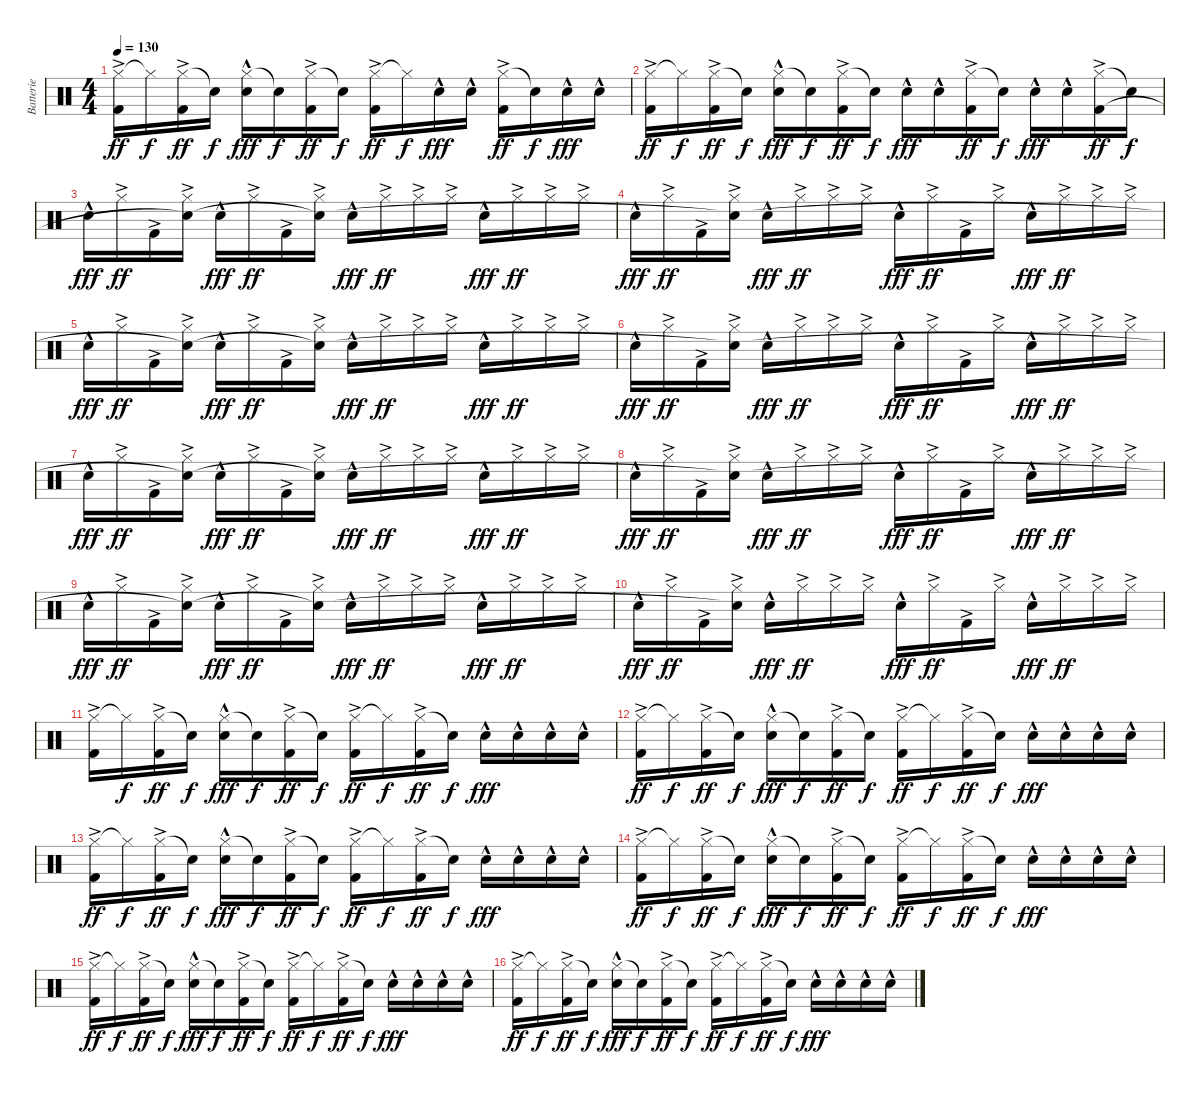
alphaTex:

\track ("Batterie" "Batterie") {instrument percussion}
\staff {score}
\articulation defaults
\ts (4 4)
\tempo 130
\clef neutral
\ks c
("Hi-Hat (closed)"{ac} "Kick (hit) 2"{ac}).16{dy ff} "Hi-Hat (closed)"{t}.16{dy f} ("Hi-Hat (closed)"{ac} "Kick (hit) 2"{ac}).16{dy ff} "Snare (hit)"{t}.16{dy f} ("Hi-Hat (closed)"{hac} "Electric Snare (hit)"{hac}).16{dy fff} "Snare (hit)"{t}.16{dy f} ("Hi-Hat (closed)"{ac} "Kick (hit) 2"{ac}).16{dy ff} "Snare (hit)"{t}.16{dy f} ("Hi-Hat (closed)"{ac} "Kick (hit) 2"{ac}).16{dy ff} "Hi-Hat (closed)"{t}.16{dy f} "Electric Snare (hit)"{hac}.16{dy fff} "Electric Snare (hit)"{hac}.16 ("Hi-Hat (closed)"{ac} "Kick (hit) 2"{ac}).16{dy ff} "Snare (hit)"{t}.16{dy f} "Electric Snare (hit)"{hac}.16{dy fff} "Electric Snare (hit)"{hac}.16 |
("Hi-Hat (closed)"{ac} "Kick (hit) 2"{ac}).16{dy ff} "Hi-Hat (closed)"{t}.16{dy f} ("Hi-Hat (closed)"{ac} "Kick (hit) 2"{ac}).16{dy ff} "Snare (hit)"{t}.16{dy f} ("Hi-Hat (closed)"{hac} "Electric Snare (hit)"{hac}).16{dy fff} "Snare (hit)"{t}.16{dy f} ("Hi-Hat (closed)"{ac} "Kick (hit) 2"{ac}).16{dy ff} "Snare (hit)"{t}.16{dy f} "Electric Snare (hit)"{hac}.16{dy fff} "Electric Snare (hit)"{hac}.16 ("Hi-Hat (closed)"{ac} "Kick (hit) 2"{ac}).16{dy ff} "Snare (hit)"{t}.16{dy f} "Electric Snare (hit)"{hac}.16{dy fff} "Electric Snare (hit)"{hac}.16 ("Hi-Hat (closed)" "Kick (hit) 2"{ac}).16{dy ff} "Snare (hit)"{t}.16{dy f} |
"Electric Snare (hit)"{hac}.16{dy fff} "Hi-Hat (closed)"{ac}.16{dy ff} "Kick (hit) 2"{ac}.16 ("Hi-Hat (closed)"{ac} "Snare (hit)"{t}).16 "Electric Snare (hit)"{hac}.16{dy fff} "Hi-Hat (closed)"{ac}.16{dy ff} "Kick (hit) 2"{ac}.16 ("Hi-Hat (closed)"{ac} "Snare (hit)"{t}).16 "Electric Snare (hit)"{hac}.16{dy fff} "Hi-Hat (closed)"{ac}.16{dy ff} "Hi-Hat (closed)"{ac}.16 "Hi-Hat (closed)"{ac}.16 "Electric Snare (hit)"{hac}.16{dy fff} "Hi-Hat (closed)"{ac}.16{dy ff} "Hi-Hat (closed)"{ac}.16 "Hi-Hat (closed)"{ac}.16 |
"Electric Snare (hit)"{hac}.16{dy fff} "Hi-Hat (closed)"{ac}.16{dy ff} "Kick (hit) 2"{ac}.16 ("Hi-Hat (closed)"{ac} "Snare (hit)"{t}).16 "Electric Snare (hit)"{hac}.16{dy fff} "Hi-Hat (closed)"{ac}.16{dy ff} "Hi-Hat (closed)"{ac}.16 "Hi-Hat (closed)"{ac}.16 "Electric Snare (hit)"{hac}.16{dy fff} "Hi-Hat (closed)"{ac}.16{dy ff} "Kick (hit) 2"{ac}.16 "Hi-Hat (closed)"{ac}.16 "Electric Snare (hit)"{hac}.16{dy fff} "Hi-Hat (closed)"{ac}.16{dy ff} "Hi-Hat (closed)"{ac}.16 "Hi-Hat (closed)"{ac}.16 |
"Electric Snare (hit)"{hac}.16{dy fff} "Hi-Hat (closed)"{ac}.16{dy ff} "Kick (hit) 2"{ac}.16 ("Hi-Hat (closed)"{ac} "Snare (hit)"{t}).16 "Electric Snare (hit)"{hac}.16{dy fff} "Hi-Hat (closed)"{ac}.16{dy ff} "Kick (hit) 2"{ac}.16 ("Hi-Hat (closed)"{ac} "Snare (hit)"{t}).16 "Electric Snare (hit)"{hac}.16{dy fff} "Hi-Hat (closed)"{ac}.16{dy ff} "Hi-Hat (closed)"{ac}.16 "Hi-Hat (closed)"{ac}.16 "Electric Snare (hit)"{hac}.16{dy fff} "Hi-Hat (closed)"{ac}.16{dy ff} "Hi-Hat (closed)"{ac}.16 "Hi-Hat (closed)"{ac}.16 |
"Electric Snare (hit)"{hac}.16{dy fff} "Hi-Hat (closed)"{ac}.16{dy ff} "Kick (hit) 2"{ac}.16 ("Hi-Hat (closed)"{ac} "Snare (hit)"{t}).16 "Electric Snare (hit)"{hac}.16{dy fff} "Hi-Hat (closed)"{ac}.16{dy ff} "Hi-Hat (closed)"{ac}.16 "Hi-Hat (closed)"{ac}.16 "Electric Snare (hit)"{hac}.16{dy fff} "Hi-Hat (closed)"{ac}.16{dy ff} "Kick (hit) 2"{ac}.16 "Hi-Hat (closed)"{ac}.16 "Electric Snare (hit)"{hac}.16{dy fff} "Hi-Hat (closed)"{ac}.16{dy ff} "Hi-Hat (closed)"{ac}.16 "Hi-Hat (closed)"{ac}.16 |
"Electric Snare (hit)"{hac}.16{dy fff} "Hi-Hat (closed)"{ac}.16{dy ff} "Kick (hit) 2"{ac}.16 ("Hi-Hat (closed)"{ac} "Snare (hit)"{t}).16 "Electric Snare (hit)"{hac}.16{dy fff} "Hi-Hat (closed)"{ac}.16{dy ff} "Kick (hit) 2"{ac}.16 ("Hi-Hat (closed)"{ac} "Snare (hit)"{t}).16 "Electric Snare (hit)"{hac}.16{dy fff} "Hi-Hat (closed)"{ac}.16{dy ff} "Hi-Hat (closed)"{ac}.16 "Hi-Hat (closed)"{ac}.16 "Electric Snare (hit)"{hac}.16{dy fff} "Hi-Hat (closed)"{ac}.16{dy ff} "Hi-Hat (closed)"{ac}.16 "Hi-Hat (closed)"{ac}.16 |
"Electric Snare (hit)"{hac}.16{dy fff} "Hi-Hat (closed)"{ac}.16{dy ff} "Kick (hit) 2"{ac}.16 ("Hi-Hat (closed)"{ac} "Snare (hit)"{t}).16 "Electric Snare (hit)"{hac}.16{dy fff} "Hi-Hat (closed)"{ac}.16{dy ff} "Hi-Hat (closed)"{ac}.16 "Hi-Hat (closed)"{ac}.16 "Electric Snare (hit)"{hac}.16{dy fff} "Hi-Hat (closed)"{ac}.16{dy ff} "Kick (hit) 2"{ac}.16 "Hi-Hat (closed)"{ac}.16 "Electric Snare (hit)"{hac}.16{dy fff} "Hi-Hat (closed)"{ac}.16{dy ff} "Hi-Hat (closed)"{ac}.16 "Hi-Hat (closed)"{ac}.16 |
"Electric Snare (hit)"{hac}.16{dy fff} "Hi-Hat (closed)"{ac}.16{dy ff} "Kick (hit) 2"{ac}.16 ("Hi-Hat (closed)"{ac} "Snare (hit)"{t}).16 "Electric Snare (hit)"{hac}.16{dy fff} "Hi-Hat (closed)"{ac}.16{dy ff} "Kick (hit) 2"{ac}.16 ("Hi-Hat (closed)"{ac} "Snare (hit)"{t}).16 "Electric Snare (hit)"{hac}.16{dy fff} "Hi-Hat (closed)"{ac}.16{dy ff} "Hi-Hat (closed)"{ac}.16 "Hi-Hat (closed)"{ac}.16 "Electric Snare (hit)"{hac}.16{dy fff} "Hi-Hat (closed)"{ac}.16{dy ff} "Hi-Hat (closed)"{ac}.16 "Hi-Hat (closed)"{ac}.16 |
"Electric Snare (hit)"{hac}.16{dy fff} "Hi-Hat (closed)"{ac}.16{dy ff} "Kick (hit) 2"{ac}.16 ("Hi-Hat (closed)"{ac} "Snare (hit)"{t}).16 "Electric Snare (hit)"{hac}.16{dy fff} "Hi-Hat (closed)"{ac}.16{dy ff} "Hi-Hat (closed)"{ac}.16 "Hi-Hat (closed)"{ac}.16 "Electric Snare (hit)"{hac}.16{dy fff} "Hi-Hat (closed)"{ac}.16{dy ff} "Kick (hit) 2"{ac}.16 "Hi-Hat (closed)"{ac}.16 "Electric Snare (hit)"{hac}.16{dy fff} "Hi-Hat (closed)"{ac}.16{dy ff} "Hi-Hat (closed)"{ac}.16 "Hi-Hat (closed)"{ac}.16 |
("Hi-Hat (closed)"{ac} "Kick (hit) 2"{ac}).16 "Hi-Hat (closed)"{t}.16{dy f} ("Hi-Hat (closed)"{ac} "Kick (hit) 2"{ac}).16{dy ff} "Snare (hit)"{t}.16{dy f} ("Hi-Hat (closed)"{hac} "Electric Snare (hit)"{hac}).16{dy fff} "Snare (hit)"{t}.16{dy f} ("Hi-Hat (closed)"{ac} "Kick (hit) 2"{ac}).16{dy ff} "Snare (hit)"{t}.16{dy f} ("Hi-Hat (closed)"{ac} "Kick (hit) 2"{ac}).16{dy ff} "Hi-Hat (closed)"{t}.16{dy f} ("Hi-Hat (closed)"{ac} "Kick (hit) 2"{ac}).16{dy ff} "Snare (hit)"{t}.16{dy f} "Electric Snare (hit)"{hac}.16{dy fff} "Electric Snare (hit)"{hac}.16 "Electric Snare (hit)"{hac}.16 "Electric Snare (hit)"{hac}.16 |
("Hi-Hat (closed)"{ac} "Kick (hit) 2"{ac}).16{dy ff} "Hi-Hat (closed)"{t}.16{dy f} ("Hi-Hat (closed)"{ac} "Kick (hit) 2"{ac}).16{dy ff} "Snare (hit)"{t}.16{dy f} ("Hi-Hat (closed)"{hac} "Electric Snare (hit)"{hac}).16{dy fff} "Snare (hit)"{t}.16{dy f} ("Hi-Hat (closed)"{ac} "Kick (hit) 2"{ac}).16{dy ff} "Snare (hit)"{t}.16{dy f} ("Hi-Hat (closed)"{ac} "Kick (hit) 2"{ac}).16{dy ff} "Hi-Hat (closed)"{t}.16{dy f} ("Hi-Hat (closed)"{ac} "Kick (hit) 2"{ac}).16{dy ff} "Snare (hit)"{t}.16{dy f} "Electric Snare (hit)"{hac}.16{dy fff} "Electric Snare (hit)"{hac}.16 "Electric Snare (hit)"{hac}.16 "Electric Snare (hit)"{hac}.16 |
("Hi-Hat (closed)"{ac} "Kick (hit) 2"{ac}).16{dy ff} "Hi-Hat (closed)"{t}.16{dy f} ("Hi-Hat (closed)"{ac} "Kick (hit) 2"{ac}).16{dy ff} "Snare (hit)"{t}.16{dy f} ("Hi-Hat (closed)"{hac} "Electric Snare (hit)"{hac}).16{dy fff} "Snare (hit)"{t}.16{dy f} ("Hi-Hat (closed)"{ac} "Kick (hit) 2"{ac}).16{dy ff} "Snare (hit)"{t}.16{dy f} ("Hi-Hat (closed)"{ac} "Kick (hit) 2"{ac}).16{dy ff} "Hi-Hat (closed)"{t}.16{dy f} ("Hi-Hat (closed)"{ac} "Kick (hit) 2"{ac}).16{dy ff} "Snare (hit)"{t}.16{dy f} "Electric Snare (hit)"{hac}.16{dy fff} "Electric Snare (hit)"{hac}.16 "Electric Snare (hit)"{hac}.16 "Electric Snare (hit)"{hac}.16 |
("Hi-Hat (closed)"{ac} "Kick (hit) 2"{ac}).16{dy ff} "Hi-Hat (closed)"{t}.16{dy f} ("Hi-Hat (closed)"{ac} "Kick (hit) 2"{ac}).16{dy ff} "Snare (hit)"{t}.16{dy f} ("Hi-Hat (closed)"{hac} "Electric Snare (hit)"{hac}).16{dy fff} "Snare (hit)"{t}.16{dy f} ("Hi-Hat (closed)"{ac} "Kick (hit) 2"{ac}).16{dy ff} "Snare (hit)"{t}.16{dy f} ("Hi-Hat (closed)"{ac} "Kick (hit) 2"{ac}).16{dy ff} "Hi-Hat (closed)"{t}.16{dy f} ("Hi-Hat (closed)"{ac} "Kick (hit) 2"{ac}).16{dy ff} "Snare (hit)"{t}.16{dy f} "Electric Snare (hit)"{hac}.16{dy fff} "Electric Snare (hit)"{hac}.16 "Electric Snare (hit)"{hac}.16 "Electric Snare (hit)"{hac}.16 |
("Hi-Hat (closed)"{ac} "Kick (hit) 2"{ac}).16{dy ff} "Hi-Hat (closed)"{t}.16{dy f} ("Hi-Hat (closed)"{ac} "Kick (hit) 2"{ac}).16{dy ff} "Snare (hit)"{t}.16{dy f} ("Hi-Hat (closed)"{hac} "Electric Snare (hit)"{hac}).16{dy fff} "Snare (hit)"{t}.16{dy f} ("Hi-Hat (closed)"{ac} "Kick (hit) 2"{ac}).16{dy ff} "Snare (hit)"{t}.16{dy f} ("Hi-Hat (closed)"{ac} "Kick (hit) 2"{ac}).16{dy ff} "Hi-Hat (closed)"{t}.16{dy f} ("Hi-Hat (closed)"{ac} "Kick (hit) 2"{ac}).16{dy ff} "Snare (hit)"{t}.16{dy f} "Electric Snare (hit)"{hac}.16{dy fff} "Electric Snare (hit)"{hac}.16 "Electric Snare (hit)"{hac}.16 "Electric Snare (hit)"{hac}.16 |
("Hi-Hat (closed)"{ac} "Kick (hit) 2"{ac}).16{dy ff} "Hi-Hat (closed)"{t}.16{dy f} ("Hi-Hat (closed)"{ac} "Kick (hit) 2"{ac}).16{dy ff} "Snare (hit)"{t}.16{dy f} ("Hi-Hat (closed)"{hac} "Electric Snare (hit)"{hac}).16{dy fff} "Snare (hit)"{t}.16{dy f} ("Hi-Hat (closed)"{ac} "Kick (hit) 2"{ac}).16{dy ff} "Snare (hit)"{t}.16{dy f} ("Hi-Hat (closed)"{ac} "Kick (hit) 2"{ac}).16{dy ff} "Hi-Hat (closed)"{t}.16{dy f} ("Hi-Hat (closed)"{ac} "Kick (hit) 2"{ac}).16{dy ff} "Snare (hit)"{t}.16{dy f} "Electric Snare (hit)"{hac}.16{dy fff} "Electric Snare (hit)"{hac}.16 "Electric Snare (hit)"{hac}.16 "Electric Snare (hit)"{hac}.16
